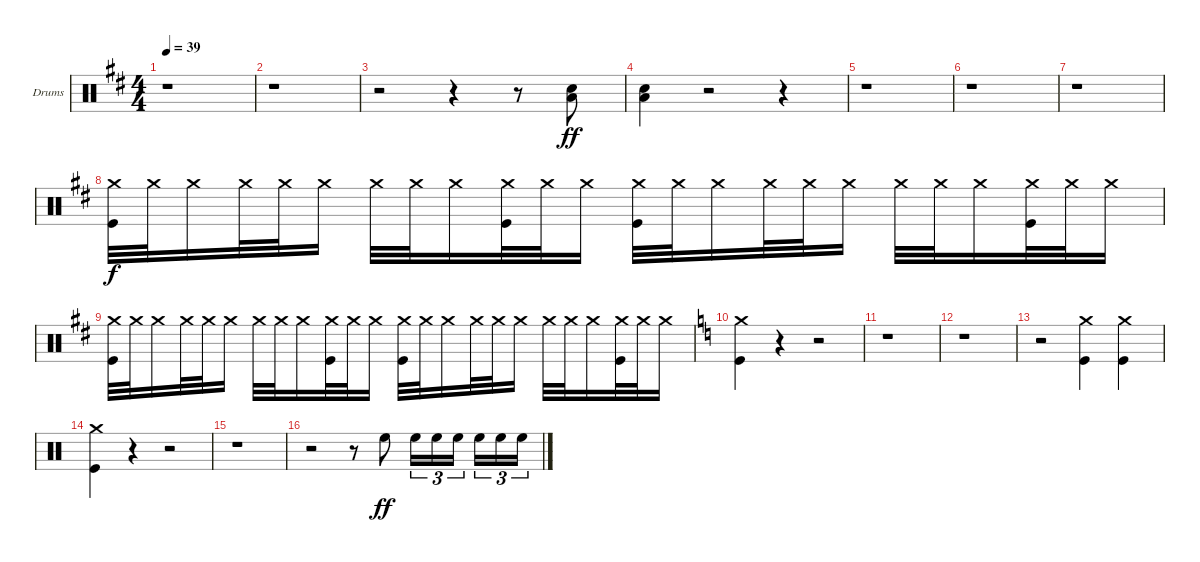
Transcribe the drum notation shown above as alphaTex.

\bracketExtendMode groupsimilarinstruments
\firstSystemTrackNameOrientation horizontal
\otherSystemsTrackNameOrientation horizontal
\track ("Drumkit" "Drums") {instrument percussion}
\staff {score}
\articulation defaults
\ts (4 4)
\tempo 39
\clef neutral
\ks d
r.1{dy ff} |
r.1 |
r.2 r.4 r.8 ("Low Tom (hit)" "Snare (hit) 2").8 |
("Low Tom (hit)" "Snare (hit) 2").4 r.2 r.4 |
r.1 |
r.1 |
r.1 |
("Crash medium (hit)" "Kick (hit)").32{dy f} "Crash medium (hit)".32 "Crash medium (hit)".16 "Crash medium (hit)".32 "Crash medium (hit)".32 "Crash medium (hit)".16 "Crash medium (hit)".32 "Crash medium (hit)".32 "Crash medium (hit)".16 ("Crash medium (hit)" "Kick (hit)").32 "Crash medium (hit)".32 "Crash medium (hit)".16 ("Crash medium (hit)" "Kick (hit)").32 "Crash medium (hit)".32 "Crash medium (hit)".16 "Crash medium (hit)".32 "Crash medium (hit)".32 "Crash medium (hit)".16 "Crash medium (hit)".32 "Crash medium (hit)".32 "Crash medium (hit)".16 ("Crash medium (hit)" "Kick (hit)").32 "Crash medium (hit)".32 "Crash medium (hit)".16 |
("Crash medium (hit)" "Kick (hit)").32 "Crash medium (hit)".32 "Crash medium (hit)".16 "Crash medium (hit)".32 "Crash medium (hit)".32 "Crash medium (hit)".16 "Crash medium (hit)".32 "Crash medium (hit)".32 "Crash medium (hit)".16 ("Crash medium (hit)" "Kick (hit)").32 "Crash medium (hit)".32 "Crash medium (hit)".16 ("Crash medium (hit)" "Kick (hit)").32 "Crash medium (hit)".32 "Crash medium (hit)".16 "Crash medium (hit)".32 "Crash medium (hit)".32 "Crash medium (hit)".16 "Crash medium (hit)".32 "Crash medium (hit)".32 "Crash medium (hit)".16 ("Crash medium (hit)" "Kick (hit)").32 "Crash medium (hit)".32 "Crash medium (hit)".16 |
\ks c
("Crash medium (hit)" "Kick (hit)").4 r.4 r.2 |
r.1 |
r.1 |
r.2 ("Crash medium (hit)" "Kick (hit)").4 ("Crash medium (hit)" "Kick (hit)").4 |
("Crash medium (hit)" "Kick (hit)").4 r.4 r.2 |
r.1 |
r.2 r.8 "High Floor Tom (hit)".8{dy ff} "High Floor Tom (hit)".16{tu (3 2)} "High Floor Tom (hit)".16{tu (3 2)} "High Floor Tom (hit)".16{tu (3 2)} "High Floor Tom (hit)".16{tu (3 2)} "High Floor Tom (hit)".16{tu (3 2)} "High Floor Tom (hit)".16{tu (3 2)}
